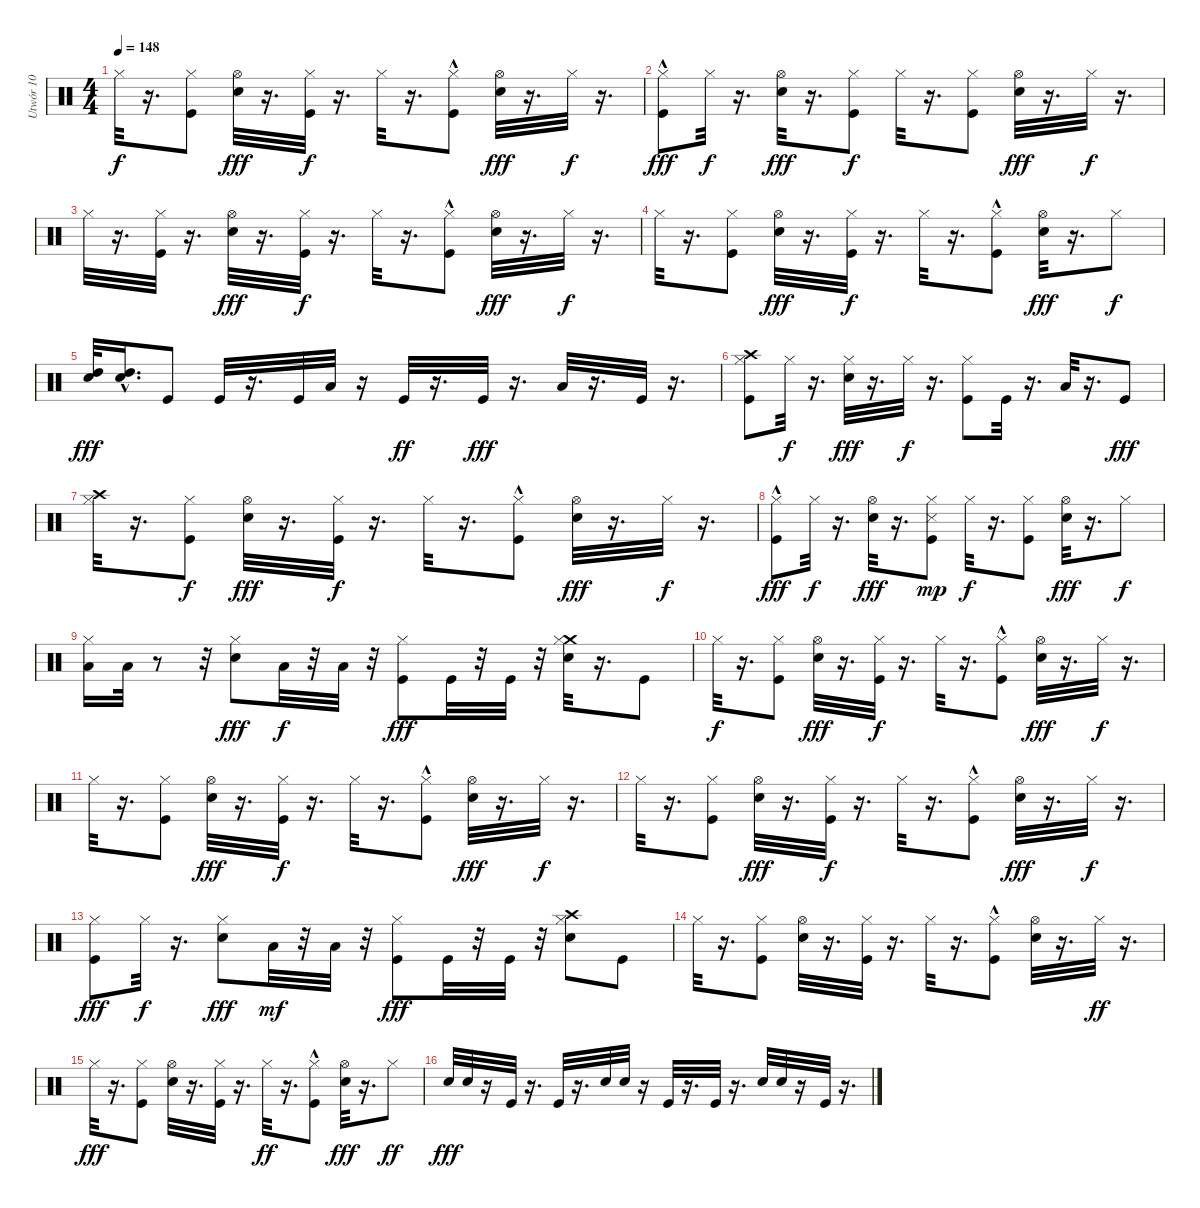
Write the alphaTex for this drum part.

\track ("Utwór 10" "Utwór 10") {instrument percussion}
\staff {score}
\articulation defaults
\ts (4 4)
\tempo 148
\clef neutral
\ks c "Hi-Hat (closed)".32{dy f}
r.16{d} ("Hi-Hat (closed)" "Kick (hit)").8 ("Hi-Hat (open)" "Electric Snare (hit)").32{dy fff} r.16{d} ("Hi-Hat (closed)" "Kick (hit)").32{dy f} r.16{d} "Hi-Hat (closed)".32 r.16{d} ("Hi-Hat (closed)" "Kick (hit)"{hac}).8 ("Hi-Hat (open)" "Electric Snare (hit)").32{dy fff} r.16{d} "Hi-Hat (closed)".32{dy f} r.16{d} |
("Hi-Hat (closed)" "Kick (hit)"{hac}).8{dy fff} "Hi-Hat (closed)".32{dy f} r.16{d} ("Hi-Hat (open)" "Electric Snare (hit)").32{dy fff} r.16{d} ("Hi-Hat (closed)" "Kick (hit)").8{dy f} "Hi-Hat (closed)".32 r.16{d} ("Hi-Hat (closed)" "Kick (hit)").8 ("Hi-Hat (open)" "Electric Snare (hit)").32{dy fff} r.16{d} "Hi-Hat (closed)".32{dy f} r.16{d} |
"Hi-Hat (closed)".32 r.16{d} ("Hi-Hat (closed)" "Kick (hit)").32 r.16{d} ("Hi-Hat (open)" "Electric Snare (hit)").32{dy fff} r.16{d} ("Hi-Hat (closed)" "Kick (hit)").32{dy f} r.16{d} "Hi-Hat (closed)".32 r.16{d} ("Hi-Hat (closed)" "Kick (hit)"{hac}).8 ("Hi-Hat (open)" "Electric Snare (hit)").32{dy fff} r.16{d} "Hi-Hat (closed)".32{dy f} r.16{d} |
"Hi-Hat (closed)".32 r.16{d} ("Hi-Hat (closed)" "Kick (hit)").8 ("Hi-Hat (open)" "Electric Snare (hit)").32{dy fff} r.16{d} ("Hi-Hat (closed)" "Kick (hit)").32{dy f} r.16{d} "Hi-Hat (closed)".32 r.16{d} ("Hi-Hat (closed)" "Kick (hit)"{hac}).8 ("Hi-Hat (open)" "Electric Snare (hit)").32{dy fff} r.16{d} "Hi-Hat (closed)".8{dy f} |
("Electric Snare (hit)" "High Tom (hit)").32{dy fff} ("Electric Snare (hit)"{hac} "High Tom (hit)").16{d} "Kick (hit)".8 "Kick (hit)".32 r.16{d} "Kick (hit)".32 "Low Tom (hit)".32 r.16 "Kick (hit)".32{dy ff} r.16{d} "Kick (hit)".32{dy fff} r.16{d} "Low Floor Tom (hit)".32 r.16{d} "Kick (hit)".32 r.16{d} |
("Crash high (hit)" "Hi-Hat (closed)" "Kick (hit)").8 "Hi-Hat (closed)".32{dy f} r.16{d} ("Hi-Hat (closed)" "Electric Snare (hit)").32{dy fff} r.16{d} "Hi-Hat (closed)".32{dy f} r.16{d} ("Hi-Hat (closed)" "Kick (hit)").8 "Kick (hit)".32 r.16{d} "Low Floor Tom (hit)".32 r.16{d} "Kick (hit)".8{dy fff} |
("Crash high (hit)" "Hi-Hat (closed)").32 r.16{d} ("Hi-Hat (closed)" "Kick (hit)").8{dy f} ("Hi-Hat (open)" "Electric Snare (hit)").32{dy fff} r.16{d} ("Hi-Hat (closed)" "Kick (hit)").32{dy f} r.16{d} "Hi-Hat (closed)".32 r.16{d} ("Hi-Hat (closed)" "Kick (hit)"{hac}).8 ("Hi-Hat (open)" "Electric Snare (hit)").32{dy fff} r.16{d} "Hi-Hat (closed)".32{dy f} r.16{d} |
("Hi-Hat (closed)" "Kick (hit)"{hac}).8{dy fff} "Hi-Hat (closed)".32{dy f} r.16{d} ("Hi-Hat (open)" "Electric Snare (hit)").32{dy fff} r.16{d} ("Hi-Hat (closed)" "Snare (side stick) 3" "Kick (hit)").8{dy mp} "Hi-Hat (closed)".32{dy f} r.16{d} ("Hi-Hat (closed)" "Kick (hit)").8 ("Hi-Hat (open)" "Electric Snare (hit)").32{dy fff} r.16{d} "Hi-Hat (closed)".8{dy f} |
("Low Tom (hit)" "Hi-Hat (closed)").16 "Low Tom (hit)".32 r.8 r.32 ("Hi-Hat (closed)" "Electric Snare (hit)").8{dy fff} "Low Floor Tom (hit)".32{dy f} r.32 "Low Floor Tom (hit)".32 r.32 ("Hi-Hat (closed)" "Kick (hit)").8{dy fff} "Kick (hit)".32 r.32 "Kick (hit)".32 r.32 ("Crash medium (hit)" "Hi-Hat (closed)" "Electric Snare (hit)").32 r.16{d} "Kick (hit)".8 |
"Hi-Hat (closed)".32{dy f} r.16{d} ("Hi-Hat (closed)" "Kick (hit)").8 ("Hi-Hat (open)" "Electric Snare (hit)").32{dy fff} r.16{d} ("Hi-Hat (closed)" "Kick (hit)").32{dy f} r.16{d} "Hi-Hat (closed)".32 r.16{d} ("Hi-Hat (closed)" "Kick (hit)"{hac}).8 ("Hi-Hat (open)" "Electric Snare (hit)").32{dy fff} r.16{d} "Hi-Hat (closed)".32{dy f} r.16{d} |
"Hi-Hat (closed)".32 r.16{d} ("Hi-Hat (closed)" "Kick (hit)").8 ("Hi-Hat (open)" "Electric Snare (hit)").32{dy fff} r.16{d} ("Hi-Hat (closed)" "Kick (hit)").32{dy f} r.16{d} "Hi-Hat (closed)".32 r.16{d} ("Hi-Hat (closed)" "Kick (hit)"{hac}).8 ("Hi-Hat (open)" "Electric Snare (hit)").32{dy fff} r.16{d} "Hi-Hat (closed)".32{dy f} r.16{d} |
"Hi-Hat (closed)".32 r.16{d} ("Hi-Hat (closed)" "Kick (hit)").8 ("Hi-Hat (open)" "Electric Snare (hit)").32{dy fff} r.16{d} ("Hi-Hat (closed)" "Kick (hit)").32{dy f} r.16{d} "Hi-Hat (closed)".32 r.16{d} ("Hi-Hat (closed)" "Kick (hit)"{hac}).8 ("Hi-Hat (open)" "Electric Snare (hit)").32{dy fff} r.16{d} "Hi-Hat (closed)".32{dy f} r.16{d} |
("Hi-Hat (closed)" "Kick (hit)").8{dy fff} "Hi-Hat (closed)".32{dy f} r.16{d} ("Hi-Hat (closed)" "Electric Snare (hit)").8{dy fff} "Low Floor Tom (hit)".32{dy mf} r.32 "Low Floor Tom (hit)".32 r.32 ("Hi-Hat (closed)" "Kick (hit)").8{dy fff} "Kick (hit)".32 r.32 "Kick (hit)".32 r.32 ("Crash high (hit)" "Hi-Hat (closed)" "Electric Snare (hit)").8 "Kick (hit)".8 |
"Hi-Hat (closed)".32 r.16{d} ("Hi-Hat (closed)" "Kick (hit)").8 ("Hi-Hat (open)" "Electric Snare (hit)").32 r.16{d} ("Hi-Hat (closed)" "Kick (hit)").32 r.16{d} "Hi-Hat (closed)".32 r.16{d} ("Hi-Hat (closed)" "Kick (hit)"{hac}).8 ("Hi-Hat (open)" "Electric Snare (hit)").32 r.16{d} "Hi-Hat (closed)".32{dy ff} r.16{d} |
"Hi-Hat (closed)".32{dy fff} r.16{d} ("Hi-Hat (closed)" "Kick (hit)").8 ("Hi-Hat (open)" "Electric Snare (hit)").32 r.16{d} ("Hi-Hat (closed)" "Kick (hit)").32 r.16{d} "Hi-Hat (closed)".32{dy ff} r.16{d} ("Hi-Hat (closed)" "Kick (hit)"{hac}).8 ("Hi-Hat (open)" "Electric Snare (hit)").32{dy fff} r.16{d} "Hi-Hat (closed)".8{dy ff} |
"Electric Snare (hit)".32{dy fff} "Electric Snare (hit)".32 r.16 "Kick (hit)".32 r.16{d} "Kick (hit)".32 r.16{d} "Electric Snare (hit)".32 "Electric Snare (hit)".32 r.16 "Kick (hit)".32 r.16{d} "Kick (hit)".32 r.16{d} "Electric Snare (hit)".32 "Electric Snare (hit)".32 r.16 "Kick (hit)".32 r.16{d}
